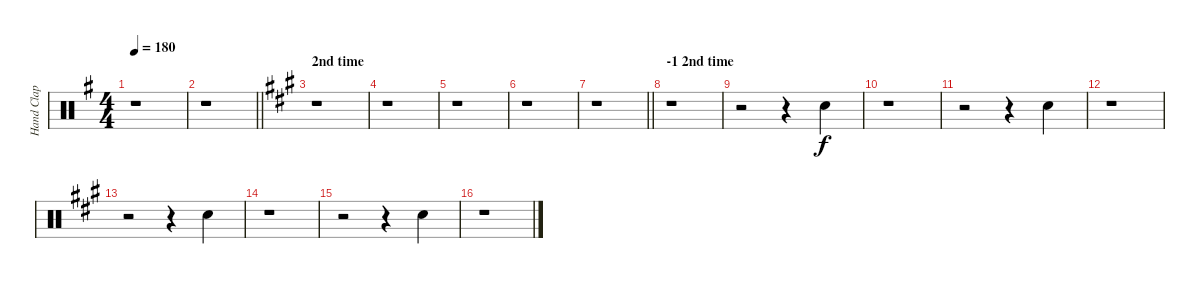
\track ("Hand Clap" "Hand Clap") {instrument percussion}
\staff {score}
\articulation defaults
\ts (4 4)
\tempo 180
\clef neutral
\ks g
r.1{dy f} |
\barLineRight lightlight
r.1 |
\section ("" "2nd time")
\ks a
r.1 |
r.1 |
r.1 |
r.1 |
\barLineRight lightlight
r.1 |
\section ("" "-1 2nd time")
r.1 |
r.2 r.4 "Hand Clap (hit)".4 |
r.1 |
r.2 r.4 "Hand Clap (hit)".4 |
r.1 |
r.2 r.4 "Hand Clap (hit)".4 |
r.1 |
r.2 r.4 "Hand Clap (hit)".4 |
r.1
